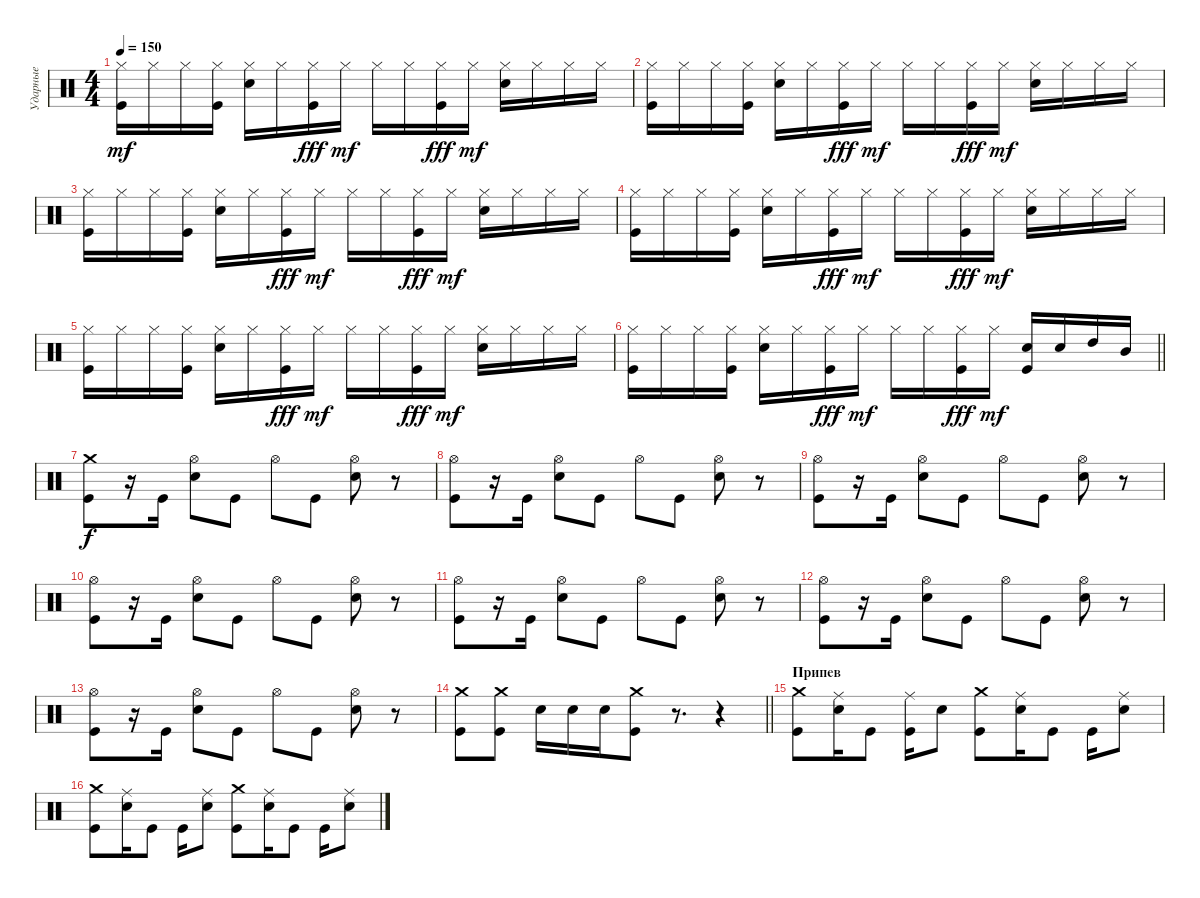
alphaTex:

\track ("Ударные" "Ударные") {instrument percussion}
\staff {score}
\articulation defaults
\ts (4 4)
\tempo 150
\clef neutral
\ks c
("Hi-Hat (closed)" "Kick (hit)").16{dy mf} "Hi-Hat (closed)".16 "Hi-Hat (closed)".16 ("Hi-Hat (closed)" "Kick (hit)").16 ("Hi-Hat (closed)" "Electric Snare (hit)").16 "Hi-Hat (closed)".16 ("Hi-Hat (closed)" "Kick (hit)").16{dy fff} "Hi-Hat (closed)".16{dy mf} "Hi-Hat (closed)".16 "Hi-Hat (closed)".16 ("Hi-Hat (closed)" "Kick (hit)").16{dy fff} "Hi-Hat (closed)".16{dy mf} ("Hi-Hat (closed)" "Electric Snare (hit)").16 "Hi-Hat (closed)".16 "Hi-Hat (closed)".16 "Hi-Hat (closed)".16 |
("Hi-Hat (closed)" "Kick (hit)").16 "Hi-Hat (closed)".16 "Hi-Hat (closed)".16 ("Hi-Hat (closed)" "Kick (hit)").16 ("Hi-Hat (closed)" "Electric Snare (hit)").16 "Hi-Hat (closed)".16 ("Hi-Hat (closed)" "Kick (hit)").16{dy fff} "Hi-Hat (closed)".16{dy mf} "Hi-Hat (closed)".16 "Hi-Hat (closed)".16 ("Hi-Hat (closed)" "Kick (hit)").16{dy fff} "Hi-Hat (closed)".16{dy mf} ("Hi-Hat (closed)" "Electric Snare (hit)").16 "Hi-Hat (closed)".16 "Hi-Hat (closed)".16 "Hi-Hat (closed)".16 |
("Hi-Hat (closed)" "Kick (hit)").16 "Hi-Hat (closed)".16 "Hi-Hat (closed)".16 ("Hi-Hat (closed)" "Kick (hit)").16 ("Hi-Hat (closed)" "Electric Snare (hit)").16 "Hi-Hat (closed)".16 ("Hi-Hat (closed)" "Kick (hit)").16{dy fff} "Hi-Hat (closed)".16{dy mf} "Hi-Hat (closed)".16 "Hi-Hat (closed)".16 ("Hi-Hat (closed)" "Kick (hit)").16{dy fff} "Hi-Hat (closed)".16{dy mf} ("Hi-Hat (closed)" "Electric Snare (hit)").16 "Hi-Hat (closed)".16 "Hi-Hat (closed)".16 "Hi-Hat (closed)".16 |
("Hi-Hat (closed)" "Kick (hit)").16 "Hi-Hat (closed)".16 "Hi-Hat (closed)".16 ("Hi-Hat (closed)" "Kick (hit)").16 ("Hi-Hat (closed)" "Electric Snare (hit)").16 "Hi-Hat (closed)".16 ("Hi-Hat (closed)" "Kick (hit)").16{dy fff} "Hi-Hat (closed)".16{dy mf} "Hi-Hat (closed)".16 "Hi-Hat (closed)".16 ("Hi-Hat (closed)" "Kick (hit)").16{dy fff} "Hi-Hat (closed)".16{dy mf} ("Hi-Hat (closed)" "Electric Snare (hit)").16 "Hi-Hat (closed)".16 "Hi-Hat (closed)".16 "Hi-Hat (closed)".16 |
("Hi-Hat (closed)" "Kick (hit)").16 "Hi-Hat (closed)".16 "Hi-Hat (closed)".16 ("Hi-Hat (closed)" "Kick (hit)").16 ("Hi-Hat (closed)" "Electric Snare (hit)").16 "Hi-Hat (closed)".16 ("Hi-Hat (closed)" "Kick (hit)").16{dy fff} "Hi-Hat (closed)".16{dy mf} "Hi-Hat (closed)".16 "Hi-Hat (closed)".16 ("Hi-Hat (closed)" "Kick (hit)").16{dy fff} "Hi-Hat (closed)".16{dy mf} ("Hi-Hat (closed)" "Electric Snare (hit)").16 "Hi-Hat (closed)".16 "Hi-Hat (closed)".16 "Hi-Hat (closed)".16 |
\barLineRight lightlight
("Hi-Hat (closed)" "Kick (hit)").16 "Hi-Hat (closed)".16 "Hi-Hat (closed)".16 ("Hi-Hat (closed)" "Kick (hit)").16 ("Hi-Hat (closed)" "Electric Snare (hit)").16 "Hi-Hat (closed)".16 ("Hi-Hat (closed)" "Kick (hit)").16{dy fff} "Hi-Hat (closed)".16{dy mf} "Hi-Hat (closed)".16 "Hi-Hat (closed)".16 ("Hi-Hat (closed)" "Kick (hit)").16{dy fff} "Hi-Hat (closed)".16{dy mf} ("Electric Snare (hit)" "Kick (hit)").16 "Electric Snare (hit)".16 "High Tom (hit)".16 "Mid Tom (hit)".16 |
\section ("" " ")
("Crash medium (hit)" "Kick (hit)").8{dy f} r.16 "Kick (hit)".16 ("Hi-Hat (open)" "Electric Snare (hit)").8 "Kick (hit)".8 "Hi-Hat (open)".8 "Kick (hit)".8 ("Hi-Hat (open)" "Electric Snare (hit)").8 r.8 |
("Hi-Hat (open)" "Kick (hit)").8 r.16 "Kick (hit)".16 ("Hi-Hat (open)" "Electric Snare (hit)").8 "Kick (hit)".8 "Hi-Hat (open)".8 "Kick (hit)".8 ("Hi-Hat (open)" "Electric Snare (hit)").8 r.8 |
("Hi-Hat (open)" "Kick (hit)").8 r.16 "Kick (hit)".16 ("Hi-Hat (open)" "Electric Snare (hit)").8 "Kick (hit)".8 "Hi-Hat (open)".8 "Kick (hit)".8 ("Hi-Hat (open)" "Electric Snare (hit)").8 r.8 |
("Hi-Hat (open)" "Kick (hit)").8 r.16 "Kick (hit)".16 ("Hi-Hat (open)" "Electric Snare (hit)").8 "Kick (hit)".8 "Hi-Hat (open)".8 "Kick (hit)".8 ("Hi-Hat (open)" "Electric Snare (hit)").8 r.8 |
("Hi-Hat (open)" "Kick (hit)").8 r.16 "Kick (hit)".16 ("Hi-Hat (open)" "Electric Snare (hit)").8 "Kick (hit)".8 "Hi-Hat (open)".8 "Kick (hit)".8 ("Hi-Hat (open)" "Electric Snare (hit)").8 r.8 |
("Hi-Hat (open)" "Kick (hit)").8 r.16 "Kick (hit)".16 ("Hi-Hat (open)" "Electric Snare (hit)").8 "Kick (hit)".8 "Hi-Hat (open)".8 "Kick (hit)".8 ("Hi-Hat (open)" "Electric Snare (hit)").8 r.8 |
("Hi-Hat (open)" "Kick (hit)").8 r.16 "Kick (hit)".16 ("Hi-Hat (open)" "Electric Snare (hit)").8 "Kick (hit)".8 "Hi-Hat (open)".8 "Kick (hit)".8 ("Hi-Hat (open)" "Electric Snare (hit)").8 r.8 |
\barLineRight lightlight
("Crash medium (hit)" "Kick (hit)").8 ("Crash medium (hit)" "Kick (hit)").8 "Electric Snare (hit)".16 "Electric Snare (hit)".16 "Electric Snare (hit)".16 ("Crash medium (hit)" "Kick (hit)").8 r.8{d} r.4 |
\section ("" "Припев")
("Crash medium (hit)" "Kick (hit)").8 ("Ride (middle)" "Electric Snare (hit)").16 "Kick (hit)".8 ("Ride (middle)" "Kick (hit)").16 "Electric Snare (hit)".8 ("Crash medium (hit)" "Kick (hit)").8 ("Ride (middle)" "Electric Snare (hit)").16 "Kick (hit)".8 "Kick (hit)".16 ("Ride (middle)" "Electric Snare (hit)").8 |
("Crash medium (hit)" "Kick (hit)").8 ("Ride (middle)" "Electric Snare (hit)").16 "Kick (hit)".8 "Kick (hit)".16 ("Ride (middle)" "Electric Snare (hit)").8 ("Crash medium (hit)" "Kick (hit)").8 ("Ride (middle)" "Electric Snare (hit)").16 "Kick (hit)".8 "Kick (hit)".16 ("Ride (middle)" "Electric Snare (hit)").8
